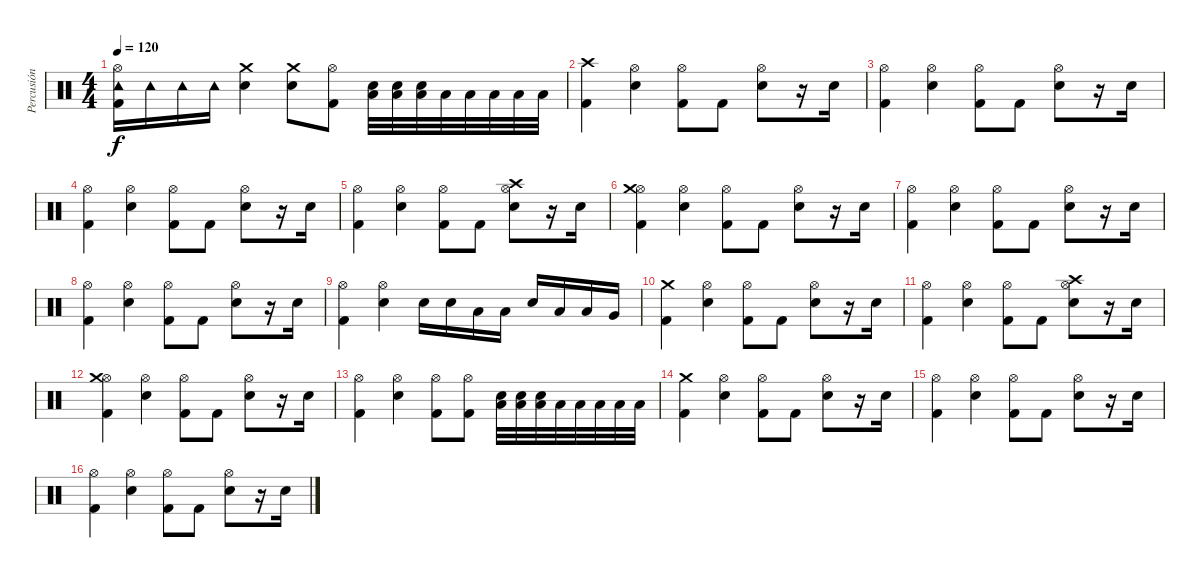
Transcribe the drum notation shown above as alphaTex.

\track ("Percusión" "Percusión") {instrument percussion}
\staff {score}
\articulation defaults
\ts (4 4)
\tempo 120
\clef neutral
\ks c
("Hi-Hat (open)" "Kick (hit) 2" "Tambourine (hit)").16{dy f} "Tambourine (hit)".16 "Tambourine (hit)".16 "Tambourine (hit)".16 ("Crash medium (hit)" "Electric Snare (hit)").4 ("Crash medium (hit)" "Electric Snare (hit)").8 ("Hi-Hat (open)" "Kick (hit) 2").8 ("Low Tom (hit)" "Electric Snare (hit)").32 ("Low Tom (hit)" "Electric Snare (hit)").32 ("Low Tom (hit)" "Electric Snare (hit)").32 "Low Tom (hit)".32 "Low Tom (hit)".32 "Low Tom (hit)".32 "Low Tom (hit)".32 "Low Tom (hit)".32 |
("Crash high (hit)" "Kick (hit) 2").4 ("Hi-Hat (open)" "Electric Snare (hit)").4 ("Hi-Hat (open)" "Kick (hit) 2").8 "Kick (hit) 2".8 ("Hi-Hat (open)" "Electric Snare (hit)").8 r.16 "Electric Snare (hit)".16 |
("Hi-Hat (open)" "Kick (hit) 2").4 ("Hi-Hat (open)" "Electric Snare (hit)").4 ("Hi-Hat (open)" "Kick (hit) 2").8 "Kick (hit) 2".8 ("Hi-Hat (open)" "Electric Snare (hit)").8 r.16 "Electric Snare (hit)".16 |
("Hi-Hat (open)" "Kick (hit) 2").4 ("Hi-Hat (open)" "Electric Snare (hit)").4 ("Hi-Hat (open)" "Kick (hit) 2").8 "Kick (hit) 2".8 ("Hi-Hat (open)" "Electric Snare (hit)").8 r.16 "Electric Snare (hit)".16 |
("Hi-Hat (open)" "Kick (hit) 2").4 ("Hi-Hat (open)" "Electric Snare (hit)").4 ("Hi-Hat (open)" "Kick (hit) 2").8 "Kick (hit) 2".8 ("Hi-Hat (open)" "Electric Snare (hit)" "Crash high (hit)").8 r.16 "Electric Snare (hit)".16 |
("Hi-Hat (open)" "Kick (hit) 2" "Crash medium (hit)").4 ("Hi-Hat (open)" "Electric Snare (hit)").4 ("Hi-Hat (open)" "Kick (hit) 2").8 "Kick (hit) 2".8 ("Hi-Hat (open)" "Electric Snare (hit)").8 r.16 "Electric Snare (hit)".16 |
("Hi-Hat (open)" "Kick (hit) 2").4 ("Hi-Hat (open)" "Electric Snare (hit)").4 ("Hi-Hat (open)" "Kick (hit) 2").8 "Kick (hit) 2".8 ("Hi-Hat (open)" "Electric Snare (hit)").8 r.16 "Electric Snare (hit)".16 |
("Hi-Hat (open)" "Kick (hit) 2").4 ("Hi-Hat (open)" "Electric Snare (hit)").4 ("Hi-Hat (open)" "Kick (hit) 2").8 "Kick (hit) 2".8 ("Hi-Hat (open)" "Electric Snare (hit)").8 r.16 "Electric Snare (hit)".16 |
("Hi-Hat (open)" "Kick (hit) 2").4 ("Hi-Hat (open)" "Electric Snare (hit)").4 "Electric Snare (hit)".16 "Electric Snare (hit)".16 "Low Floor Tom (hit)".16 "Low Floor Tom (hit)".16 "Electric Snare (hit)".16 "Low Tom (hit)".16 "Low Tom (hit)".16 "Very Low Tom (hit)".16 |
("Crash medium (hit)" "Kick (hit) 2").4 ("Hi-Hat (open)" "Electric Snare (hit)").4 ("Hi-Hat (open)" "Kick (hit) 2").8 "Kick (hit) 2".8 ("Hi-Hat (open)" "Electric Snare (hit)").8 r.16 "Electric Snare (hit)".16 |
("Hi-Hat (open)" "Kick (hit) 2").4 ("Hi-Hat (open)" "Electric Snare (hit)").4 ("Hi-Hat (open)" "Kick (hit) 2").8 "Kick (hit) 2".8 ("Hi-Hat (open)" "Electric Snare (hit)" "Crash high (hit)").8 r.16 "Electric Snare (hit)".16 |
("Hi-Hat (open)" "Kick (hit) 2" "Crash medium (hit)").4 ("Hi-Hat (open)" "Electric Snare (hit)").4 ("Hi-Hat (open)" "Kick (hit) 2").8 "Kick (hit) 2".8 ("Hi-Hat (open)" "Electric Snare (hit)").8 r.16 "Electric Snare (hit)".16 |
("Hi-Hat (open)" "Kick (hit) 2").4 ("Hi-Hat (open)" "Electric Snare (hit)").4 ("Hi-Hat (open)" "Kick (hit) 2").8 ("Hi-Hat (open)" "Kick (hit) 2").8 ("Low Tom (hit)" "Electric Snare (hit)").32 ("Low Tom (hit)" "Electric Snare (hit)").32 ("Low Tom (hit)" "Electric Snare (hit)").32 "Low Tom (hit)".32 "Low Tom (hit)".32 "Low Tom (hit)".32 "Low Tom (hit)".32 "Low Tom (hit)".32 |
("Crash medium (hit)" "Kick (hit) 2").4 ("Hi-Hat (open)" "Electric Snare (hit)").4 ("Hi-Hat (open)" "Kick (hit) 2").8 "Kick (hit) 2".8 ("Hi-Hat (open)" "Electric Snare (hit)").8 r.16 "Electric Snare (hit)".16 |
("Hi-Hat (open)" "Kick (hit) 2").4 ("Hi-Hat (open)" "Electric Snare (hit)").4 ("Hi-Hat (open)" "Kick (hit) 2").8 "Kick (hit) 2".8 ("Hi-Hat (open)" "Electric Snare (hit)").8 r.16 "Electric Snare (hit)".16 |
("Hi-Hat (open)" "Kick (hit) 2").4 ("Hi-Hat (open)" "Electric Snare (hit)").4 ("Hi-Hat (open)" "Kick (hit) 2").8 "Kick (hit) 2".8 ("Hi-Hat (open)" "Electric Snare (hit)").8 r.16 "Electric Snare (hit)".16
